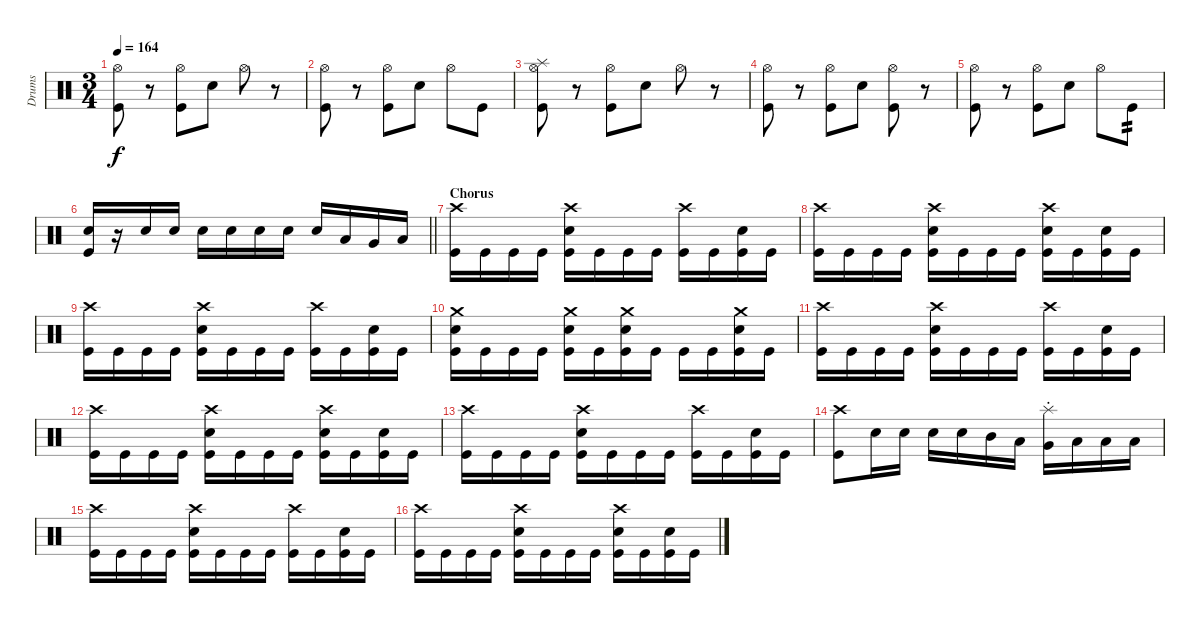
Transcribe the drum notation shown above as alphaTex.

\track ("Drums" "Drums") {instrument percussion}
\staff {score}
\articulation defaults
\ts (3 4)
\tempo 164
\clef neutral
\ks c
("Hi-Hat (open)" "Kick (hit)").8{dy f} r.8 ("Hi-Hat (open)" "Kick (hit)").8 "Snare (hit) 2".8 "Hi-Hat (open)".8 r.8 |
("Hi-Hat (open)" "Kick (hit)").8 r.8 ("Hi-Hat (open)" "Kick (hit)").8 "Snare (hit) 2".8 "Hi-Hat (open)".8 "Kick (hit)".8 |
("Hi-Hat (open)" "Splash (hit)" "Kick (hit)").8 r.8 ("Hi-Hat (open)" "Kick (hit)").8 "Snare (hit) 2".8 "Hi-Hat (open)".8 r.8 |
("Hi-Hat (open)" "Kick (hit)").8 r.8 ("Hi-Hat (open)" "Kick (hit)").8 "Snare (hit) 2".8 ("Hi-Hat (open)" "Kick (hit)").8 r.8 |
("Hi-Hat (open)" "Kick (hit)").8 r.8 ("Hi-Hat (open)" "Kick (hit)").8 "Snare (hit) 2".8 "Hi-Hat (open)".8 "Kick (hit)".8{tp 2} |
\barLineRight lightlight
("Snare (hit) 2" "Kick (hit)").16 r.16 "Snare (hit) 2".16 "Snare (hit) 2".16 "Snare (hit) 2".16 "Snare (hit) 2".16 "Snare (hit) 2".16 "Snare (hit) 2".16 "Snare (hit) 2".16 "Low Tom (hit)".16 "Very Low Tom (hit)".16 "Low Floor Tom (hit)".16 |
\section ("" "Chorus")
("Crash high (hit)" "Kick (hit)").16 "Kick (hit)".16 "Kick (hit)".16 "Kick (hit)".16 ("Crash high (hit)" "Snare (hit) 2" "Kick (hit)").16 "Kick (hit)".16 "Kick (hit)".16 "Kick (hit)".16 ("Crash high (hit)" "Kick (hit)").16 "Kick (hit)".16 ("Snare (hit) 2" "Kick (hit)").16 "Kick (hit)".16 |
("Crash high (hit)" "Kick (hit)").16 "Kick (hit)".16 "Kick (hit)".16 "Kick (hit)".16 ("Crash high (hit)" "Snare (hit) 2" "Kick (hit)").16 "Kick (hit)".16 "Kick (hit)".16 "Kick (hit)".16 ("Crash high (hit)" "Snare (hit) 2" "Kick (hit)").16 "Kick (hit)".16 ("Snare (hit) 2" "Kick (hit)").16 "Kick (hit)".16 |
("Crash high (hit)" "Kick (hit)").16 "Kick (hit)".16 "Kick (hit)".16 "Kick (hit)".16 ("Crash high (hit)" "Snare (hit) 2" "Kick (hit)").16 "Kick (hit)".16 "Kick (hit)".16 "Kick (hit)".16 ("Crash high (hit)" "Kick (hit)").16 "Kick (hit)".16 ("Snare (hit) 2" "Kick (hit)").16 "Kick (hit)".16 |
("Crash medium (hit)" "Snare (hit) 2" "Kick (hit)").16 "Kick (hit)".16 "Kick (hit)".16 "Kick (hit)".16 ("Crash medium (hit)" "Snare (hit) 2" "Kick (hit)").16 "Kick (hit)".16 ("Crash medium (hit)" "Snare (hit) 2" "Kick (hit)").16 "Kick (hit)".16 "Kick (hit)".16 "Kick (hit)".16 ("Crash medium (hit)" "Snare (hit) 2" "Kick (hit)").16 "Kick (hit)".16 |
("Crash high (hit)" "Kick (hit)").16 "Kick (hit)".16 "Kick (hit)".16 "Kick (hit)".16 ("Crash high (hit)" "Snare (hit) 2" "Kick (hit)").16 "Kick (hit)".16 "Kick (hit)".16 "Kick (hit)".16 ("Crash high (hit)" "Kick (hit)").16 "Kick (hit)".16 ("Snare (hit) 2" "Kick (hit)").16 "Kick (hit)".16 |
("Crash high (hit)" "Kick (hit)").16 "Kick (hit)".16 "Kick (hit)".16 "Kick (hit)".16 ("Crash high (hit)" "Snare (hit) 2" "Kick (hit)").16 "Kick (hit)".16 "Kick (hit)".16 "Kick (hit)".16 ("Crash high (hit)" "Snare (hit) 2" "Kick (hit)").16 "Kick (hit)".16 ("Snare (hit) 2" "Kick (hit)").16 "Kick (hit)".16 |
("Crash high (hit)" "Kick (hit)").16 "Kick (hit)".16 "Kick (hit)".16 "Kick (hit)".16 ("Crash high (hit)" "Snare (hit) 2" "Kick (hit)").16 "Kick (hit)".16 "Kick (hit)".16 "Kick (hit)".16 ("Crash high (hit)" "Kick (hit)").16 "Kick (hit)".16 ("Snare (hit) 2" "Kick (hit)").16 "Kick (hit)".16 |
("Crash high (hit)" "Kick (hit)").8 "Snare (hit) 2".16 "Snare (hit) 2".16 "Snare (hit) 2".16 "Snare (hit) 2".16 "Mid Tom (hit)".16 "Low Tom (hit)".16 ("Splash (hit)"{st} "Very Low Tom (hit)").16 "Low Floor Tom (hit)".16 "Low Floor Tom (hit)".16 "Low Floor Tom (hit)".16 |
("Crash high (hit)" "Kick (hit)").16 "Kick (hit)".16 "Kick (hit)".16 "Kick (hit)".16 ("Crash high (hit)" "Snare (hit) 2" "Kick (hit)").16 "Kick (hit)".16 "Kick (hit)".16 "Kick (hit)".16 ("Crash high (hit)" "Kick (hit)").16 "Kick (hit)".16 ("Snare (hit) 2" "Kick (hit)").16 "Kick (hit)".16 |
("Crash high (hit)" "Kick (hit)").16 "Kick (hit)".16 "Kick (hit)".16 "Kick (hit)".16 ("Crash high (hit)" "Snare (hit) 2" "Kick (hit)").16 "Kick (hit)".16 "Kick (hit)".16 "Kick (hit)".16 ("Crash high (hit)" "Snare (hit) 2" "Kick (hit)").16 "Kick (hit)".16 ("Snare (hit) 2" "Kick (hit)").16 "Kick (hit)".16
